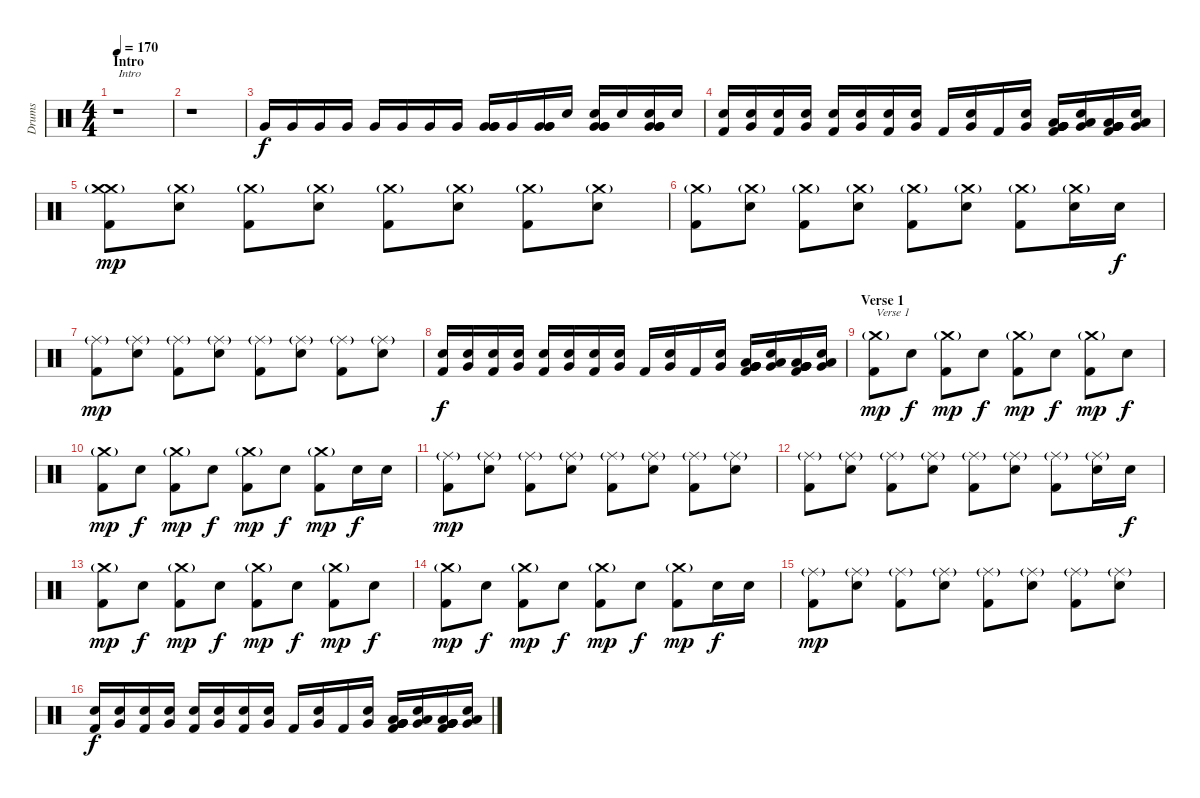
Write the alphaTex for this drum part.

\track ("Drums" "Drums") {instrument percussion}
\staff {score}
\articulation defaults
\ts (4 4)
\section ("" "Intro")
\tempo 170
\clef neutral
\ks c
r.1{txt "Intro" dy f} |
r.1 |
"Very Low Tom (hit)".16 "Very Low Tom (hit)".16 "Very Low Tom (hit)".16 "Very Low Tom (hit)".16 "Very Low Tom (hit)".16 "Very Low Tom (hit)".16 "Very Low Tom (hit)".16 "Very Low Tom (hit)".16 ("Very Low Tom (hit)" "Very Low Tom (hit)" "Very Low Tom (hit)").16 "Very Low Tom (hit)".16 ("Very Low Tom (hit)" "Very Low Tom (hit)" "Very Low Tom (hit)").16 "Snare (hit) 2".16 ("Snare (hit) 2" "Very Low Tom (hit)" "Very Low Tom (hit)" "Very Low Tom (hit)").16 "Snare (hit) 2".16 ("Snare (hit) 2" "Very Low Tom (hit)" "Very Low Tom (hit)" "Very Low Tom (hit)").16 "Snare (hit) 2".16 |
("Snare (hit) 2" "Kick (hit) 2").16 ("Snare (hit) 2" "Very Low Tom (hit)").16 ("Snare (hit) 2" "Kick (hit) 2").16 ("Snare (hit) 2" "Very Low Tom (hit)").16 ("Snare (hit) 2" "Kick (hit) 2").16 ("Snare (hit) 2" "Very Low Tom (hit)").16 ("Snare (hit) 2" "Kick (hit) 2").16 ("Snare (hit) 2" "Very Low Tom (hit)").16 "Kick (hit) 2".16 ("Snare (hit) 2" "Very Low Tom (hit)").16 "Kick (hit) 2".16 ("Snare (hit) 2" "Very Low Tom (hit)").16 ("Low Tom (hit)" "Very Low Tom (hit)" "Very Low Tom (hit)" "Very Low Tom (hit)" "Very Low Tom (hit)" "Kick (hit) 2").16 ("Low Tom (hit)" "Snare (hit) 2" "Very Low Tom (hit)").16 ("Low Tom (hit)" "Very Low Tom (hit)" "Very Low Tom (hit)" "Very Low Tom (hit)" "Very Low Tom (hit)" "Kick (hit) 2").16 ("Low Tom (hit)" "Snare (hit) 2" "Very Low Tom (hit)").16 |
("Crash medium (hit)" "Crash medium (hit)"{g} "Kick (hit) 2").8{dy mp} ("Crash medium (hit)"{g} "Snare (hit) 2").8 ("Crash medium (hit)"{g} "Kick (hit) 2").8 ("Crash medium (hit)"{g} "Snare (hit) 2").8 ("Crash medium (hit)"{g} "Kick (hit) 2").8 ("Crash medium (hit)"{g} "Snare (hit) 2").8 ("Crash medium (hit)"{g} "Kick (hit) 2").8 ("Crash medium (hit)"{g} "Snare (hit) 2").8 |
("Crash medium (hit)"{g} "Kick (hit) 2").8 ("Crash medium (hit)"{g} "Snare (hit) 2").8 ("Crash medium (hit)"{g} "Kick (hit) 2").8 ("Crash medium (hit)"{g} "Snare (hit) 2").8 ("Crash medium (hit)"{g} "Kick (hit) 2").8 ("Crash medium (hit)"{g} "Snare (hit) 2").8 ("Crash medium (hit)"{g} "Kick (hit) 2").8 ("Crash medium (hit)"{g} "Snare (hit) 2").16 "Snare (hit) 2".16{dy f} |
("Ride (middle)"{g} "Kick (hit) 2").8{dy mp} ("Ride (middle)"{g} "Snare (hit) 2").8 ("Ride (middle)"{g} "Kick (hit) 2").8 ("Ride (middle)"{g} "Snare (hit) 2").8 ("Ride (middle)"{g} "Kick (hit) 2").8 ("Ride (middle)"{g} "Snare (hit) 2").8 ("Ride (middle)"{g} "Kick (hit) 2").8 ("Ride (middle)"{g} "Snare (hit) 2").8 |
("Snare (hit) 2" "Kick (hit) 2").16{dy f} ("Snare (hit) 2" "Very Low Tom (hit)").16 ("Snare (hit) 2" "Kick (hit) 2").16 ("Snare (hit) 2" "Very Low Tom (hit)").16 ("Snare (hit) 2" "Kick (hit) 2").16 ("Snare (hit) 2" "Very Low Tom (hit)").16 ("Snare (hit) 2" "Kick (hit) 2").16 ("Snare (hit) 2" "Very Low Tom (hit)").16 "Kick (hit) 2".16 ("Snare (hit) 2" "Very Low Tom (hit)").16 "Kick (hit) 2".16 ("Snare (hit) 2" "Very Low Tom (hit)").16 ("Low Tom (hit)" "Very Low Tom (hit)" "Very Low Tom (hit)" "Very Low Tom (hit)" "Very Low Tom (hit)" "Kick (hit) 2").16 ("Low Tom (hit)" "Snare (hit) 2" "Very Low Tom (hit)").16 ("Low Tom (hit)" "Very Low Tom (hit)" "Very Low Tom (hit)" "Very Low Tom (hit)" "Very Low Tom (hit)" "Kick (hit) 2").16 ("Low Tom (hit)" "Snare (hit) 2" "Very Low Tom (hit)").16 |
\section ("" "Verse 1")
("Crash medium (hit)"{g} "Kick (hit) 2").8{txt "Verse 1" dy mp} "Snare (hit) 2".8{dy f} ("Crash medium (hit)"{g} "Kick (hit) 2").8{dy mp} "Snare (hit) 2".8{dy f} ("Crash medium (hit)"{g} "Kick (hit) 2").8{dy mp} "Snare (hit) 2".8{dy f} ("Crash medium (hit)"{g} "Kick (hit) 2").8{dy mp} "Snare (hit) 2".8{dy f} |
("Crash medium (hit)"{g} "Kick (hit) 2").8{dy mp} "Snare (hit) 2".8{dy f} ("Crash medium (hit)"{g} "Kick (hit) 2").8{dy mp} "Snare (hit) 2".8{dy f} ("Crash medium (hit)"{g} "Kick (hit) 2").8{dy mp} "Snare (hit) 2".8{dy f} ("Crash medium (hit)"{g} "Kick (hit) 2").8{dy mp} "Snare (hit) 2".16{dy f} "Snare (hit) 2".16 |
("Ride (middle)"{g} "Kick (hit) 2").8{dy mp} ("Ride (middle)"{g} "Snare (hit) 2").8 ("Ride (middle)"{g} "Kick (hit) 2").8 ("Ride (middle)"{g} "Snare (hit) 2").8 ("Ride (middle)"{g} "Kick (hit) 2").8 ("Ride (middle)"{g} "Snare (hit) 2").8 ("Ride (middle)"{g} "Kick (hit) 2").8 ("Ride (middle)"{g} "Snare (hit) 2").8 |
("Ride (middle)"{g} "Kick (hit) 2").8 ("Ride (middle)"{g} "Snare (hit) 2").8 ("Ride (middle)"{g} "Kick (hit) 2").8 ("Ride (middle)"{g} "Snare (hit) 2").8 ("Ride (middle)"{g} "Kick (hit) 2").8 ("Ride (middle)"{g} "Snare (hit) 2").8 ("Ride (middle)"{g} "Kick (hit) 2").8 ("Ride (middle)"{g} "Snare (hit) 2").16 "Snare (hit) 2".16{dy f} |
("Crash medium (hit)"{g} "Kick (hit) 2").8{dy mp} "Snare (hit) 2".8{dy f} ("Crash medium (hit)"{g} "Kick (hit) 2").8{dy mp} "Snare (hit) 2".8{dy f} ("Crash medium (hit)"{g} "Kick (hit) 2").8{dy mp} "Snare (hit) 2".8{dy f} ("Crash medium (hit)"{g} "Kick (hit) 2").8{dy mp} "Snare (hit) 2".8{dy f} |
("Crash medium (hit)"{g} "Kick (hit) 2").8{dy mp} "Snare (hit) 2".8{dy f} ("Crash medium (hit)"{g} "Kick (hit) 2").8{dy mp} "Snare (hit) 2".8{dy f} ("Crash medium (hit)"{g} "Kick (hit) 2").8{dy mp} "Snare (hit) 2".8{dy f} ("Crash medium (hit)"{g} "Kick (hit) 2").8{dy mp} "Snare (hit) 2".16{dy f} "Snare (hit) 2".16 |
("Ride (middle)"{g} "Kick (hit) 2").8{dy mp} ("Ride (middle)"{g} "Snare (hit) 2").8 ("Ride (middle)"{g} "Kick (hit) 2").8 ("Ride (middle)"{g} "Snare (hit) 2").8 ("Ride (middle)"{g} "Kick (hit) 2").8 ("Ride (middle)"{g} "Snare (hit) 2").8 ("Ride (middle)"{g} "Kick (hit) 2").8 ("Ride (middle)"{g} "Snare (hit) 2").8 |
("Snare (hit) 2" "Kick (hit) 2").16{dy f} ("Snare (hit) 2" "Very Low Tom (hit)").16 ("Snare (hit) 2" "Kick (hit) 2").16 ("Snare (hit) 2" "Very Low Tom (hit)").16 ("Snare (hit) 2" "Kick (hit) 2").16 ("Snare (hit) 2" "Very Low Tom (hit)").16 ("Snare (hit) 2" "Kick (hit) 2").16 ("Snare (hit) 2" "Very Low Tom (hit)").16 "Kick (hit) 2".16 ("Snare (hit) 2" "Very Low Tom (hit)").16 "Kick (hit) 2".16 ("Snare (hit) 2" "Very Low Tom (hit)").16 ("Low Tom (hit)" "Very Low Tom (hit)" "Very Low Tom (hit)" "Very Low Tom (hit)" "Very Low Tom (hit)" "Kick (hit) 2").16 ("Low Tom (hit)" "Snare (hit) 2" "Very Low Tom (hit)").16 ("Low Tom (hit)" "Very Low Tom (hit)" "Very Low Tom (hit)" "Very Low Tom (hit)" "Very Low Tom (hit)" "Kick (hit) 2").16 ("Low Tom (hit)" "Snare (hit) 2" "Very Low Tom (hit)").16
